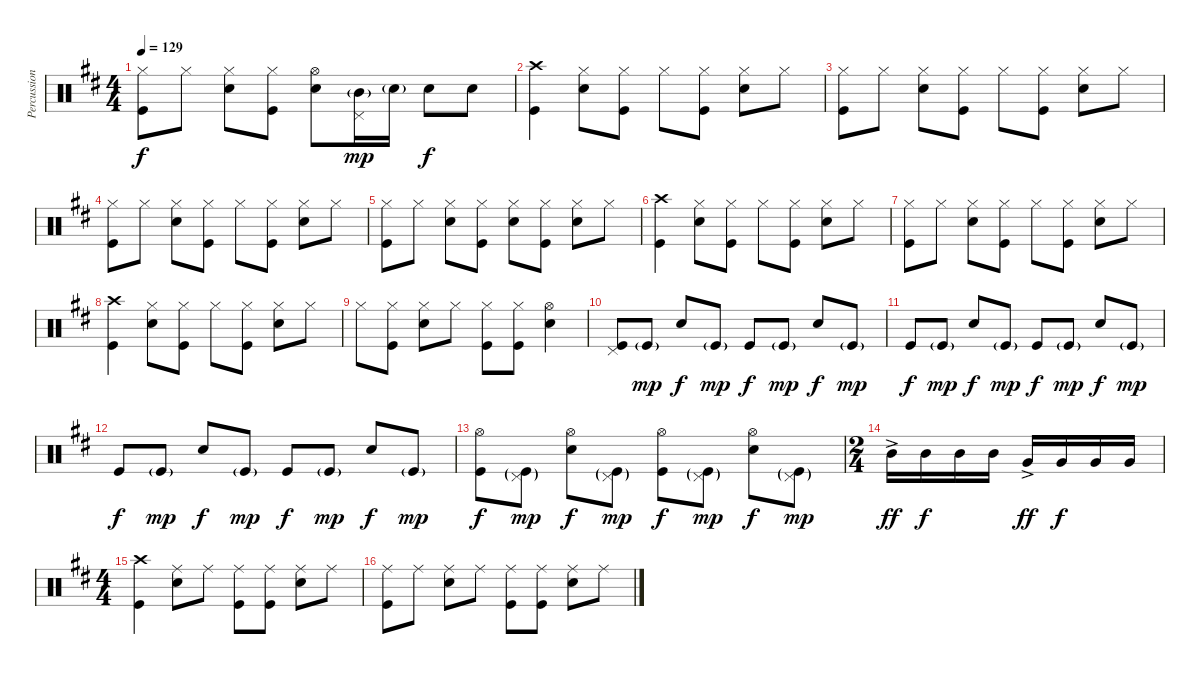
\track ("Percussion" "Percussion") {instrument percussion}
\staff {score}
\articulation defaults
\ts (4 4)
\tempo 129
\clef neutral
\ks bminor
("Hi-Hat (closed)" "Kick (hit)").8{dy f} "Hi-Hat (closed)".8 ("Hi-Hat (closed)" "Snare (hit) 2").8 ("Hi-Hat (closed)" "Kick (hit)").8 ("Hi-Hat (open)" "Snare (hit) 2").8 ("Pedal Hi-Hat (hit)" "Mid Tom (hit)"{g}).16{dy mp} "Snare (hit) 2"{g}.16 "Snare (hit) 2".8{dy f} "Snare (hit) 2".8 |
("Crash high (hit)" "Kick (hit)").4 ("Hi-Hat (closed)" "Snare (hit) 2").8 ("Hi-Hat (closed)" "Kick (hit)").8 "Hi-Hat (closed)".8 ("Hi-Hat (closed)" "Kick (hit)").8 ("Hi-Hat (closed)" "Snare (hit) 2").8 "Hi-Hat (closed)".8 |
("Hi-Hat (closed)" "Kick (hit)").8 "Hi-Hat (closed)".8 ("Hi-Hat (closed)" "Snare (hit) 2").8 ("Hi-Hat (closed)" "Kick (hit)").8 "Hi-Hat (closed)".8 ("Hi-Hat (closed)" "Kick (hit)").8 ("Hi-Hat (closed)" "Snare (hit) 2").8 "Hi-Hat (closed)".8 |
("Hi-Hat (closed)" "Kick (hit)").8 "Hi-Hat (closed)".8 ("Hi-Hat (closed)" "Snare (hit) 2").8 ("Hi-Hat (closed)" "Kick (hit)").8 "Hi-Hat (closed)".8 ("Hi-Hat (closed)" "Kick (hit)").8 ("Hi-Hat (closed)" "Snare (hit) 2").8 "Hi-Hat (closed)".8 |
("Hi-Hat (closed)" "Kick (hit)").8 "Hi-Hat (closed)".8 ("Hi-Hat (closed)" "Snare (hit) 2").8 ("Hi-Hat (closed)" "Kick (hit)").8 ("Hi-Hat (closed)" "Snare (hit) 2").8 ("Hi-Hat (closed)" "Kick (hit)").8 ("Hi-Hat (closed)" "Snare (hit) 2").8 "Hi-Hat (closed)".8 |
("Crash high (hit)" "Kick (hit)").4 ("Hi-Hat (closed)" "Snare (hit) 2").8 ("Hi-Hat (closed)" "Kick (hit)").8 "Hi-Hat (closed)".8 ("Hi-Hat (closed)" "Kick (hit)").8 ("Hi-Hat (closed)" "Snare (hit) 2").8 "Hi-Hat (closed)".8 |
("Hi-Hat (closed)" "Kick (hit)").8 "Hi-Hat (closed)".8 ("Hi-Hat (closed)" "Snare (hit) 2").8 ("Hi-Hat (closed)" "Kick (hit)").8 "Hi-Hat (closed)".8 ("Hi-Hat (closed)" "Kick (hit)").8 ("Hi-Hat (closed)" "Snare (hit) 2").8 "Hi-Hat (closed)".8 |
("Crash high (hit)" "Kick (hit)").4 ("Hi-Hat (closed)" "Snare (hit) 2").8 ("Hi-Hat (closed)" "Kick (hit)").8 "Hi-Hat (closed)".8 ("Hi-Hat (closed)" "Kick (hit)").8 ("Hi-Hat (closed)" "Snare (hit) 2").8 "Hi-Hat (closed)".8 |
"Hi-Hat (closed)".8 ("Hi-Hat (closed)" "Kick (hit)").8 ("Hi-Hat (closed)" "Snare (hit) 2").8 "Hi-Hat (closed)".8 ("Hi-Hat (closed)" "Kick (hit)").8 ("Hi-Hat (closed)" "Kick (hit)").8 ("Hi-Hat (open)" "Snare (hit) 2").4 |
("Pedal Hi-Hat (hit)" "Kick (hit)").8 "Kick (hit)"{g}.8{dy mp} "Snare (hit) 2".8{dy f} "Kick (hit)"{g}.8{dy mp} "Kick (hit)".8{dy f} "Kick (hit)"{g}.8{dy mp} "Snare (hit) 2".8{dy f} "Kick (hit)"{g}.8{dy mp} |
"Kick (hit)".8{dy f} "Kick (hit)"{g}.8{dy mp} "Snare (hit) 2".8{dy f} "Kick (hit)"{g}.8{dy mp} "Kick (hit)".8{dy f} "Kick (hit)"{g}.8{dy mp} "Snare (hit) 2".8{dy f} "Kick (hit)"{g}.8{dy mp} |
"Kick (hit)".8{dy f} "Kick (hit)"{g}.8{dy mp} "Snare (hit) 2".8{dy f} "Kick (hit)"{g}.8{dy mp} "Kick (hit)".8{dy f} "Kick (hit)"{g}.8{dy mp} "Snare (hit) 2".8{dy f} "Kick (hit)"{g}.8{dy mp} |
("Hi-Hat (open)" "Kick (hit)").8{dy f} ("Pedal Hi-Hat (hit)"{g} "Kick (hit)"{g}).8{dy mp} ("Hi-Hat (open)" "Snare (hit) 2").8{dy f} ("Pedal Hi-Hat (hit)"{g} "Kick (hit)"{g}).8{dy mp} ("Hi-Hat (open)" "Kick (hit)").8{dy f} ("Pedal Hi-Hat (hit)"{g} "Kick (hit)"{g}).8{dy mp} ("Hi-Hat (open)" "Snare (hit) 2").8{dy f} ("Pedal Hi-Hat (hit)"{g} "Kick (hit)"{g}).8{dy mp} |
\ts (2 4)
"Mid Tom (hit)"{ac}.16{dy ff} "Mid Tom (hit)".16{dy f} "Mid Tom (hit)".16 "Mid Tom (hit)".16 "Very Low Tom (hit)"{ac}.16{dy ff} "Very Low Tom (hit)".16{dy f} "Very Low Tom (hit)".16 "Very Low Tom (hit)".16 |
\ts (4 4)
("Crash high (hit)" "Kick (hit)").4 ("Ride (middle)" "Snare (hit) 2").8 "Ride (middle)".8 ("Ride (middle)" "Kick (hit)").8 ("Ride (middle)" "Kick (hit)").8 ("Ride (middle)" "Snare (hit) 2").8 "Ride (middle)".8 |
("Ride (middle)" "Kick (hit)").8 "Ride (middle)".8 ("Ride (middle)" "Snare (hit) 2").8 "Ride (middle)".8 ("Ride (middle)" "Kick (hit)").8 ("Ride (middle)" "Kick (hit)").8 ("Ride (middle)" "Snare (hit) 2").8 "Ride (middle)".8
